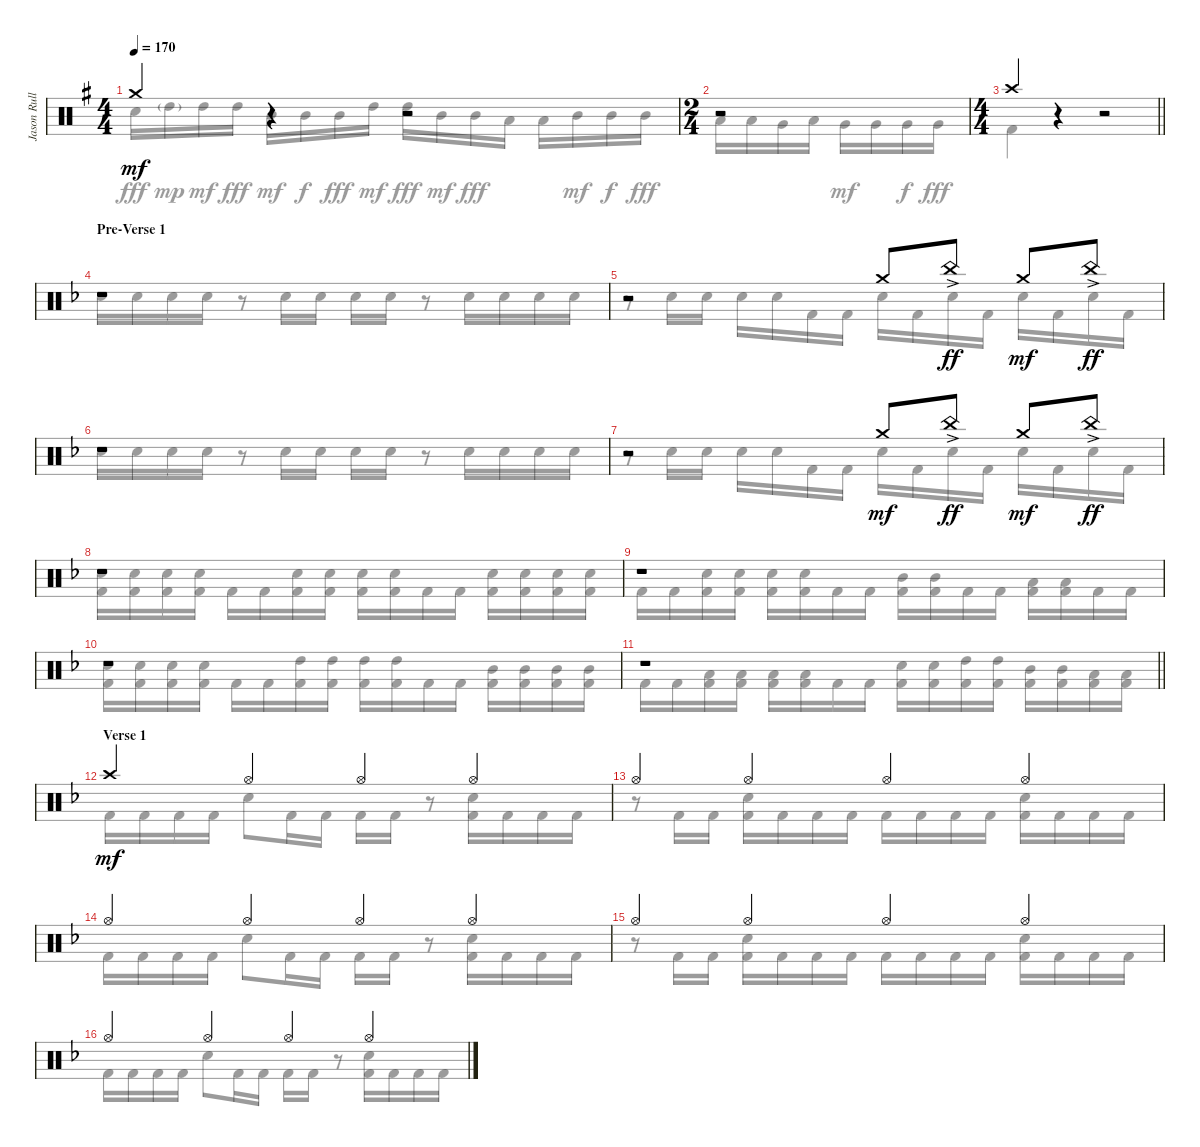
\track ("Jason Rullo Drums" "Jason Rull") {instrument percussion}
\staff {score}
\articulation defaults
\voice
\ts (4 4)
\tempo 170
\clef neutral
\ks eminor "Crash medium (hit)".4{dy mf}
r.4 r.2 |
\ts (2 4)
r.2 |
\ts (4 4)
\barLineRight lightlight "Crash high (hit)".4
r.4 r.2 |
\section ("" "Pre-Verse 1")
\ks dminor
r.1 |
r.2 "Crash medium (hit)".8 "China (hit)"{ac}.8{dy ff} "Crash medium (hit)".8{dy mf} "China (hit)"{ac}.8{dy ff} |
r.1 |
r.2 "Crash medium (hit)".8{dy mf} "China (hit)"{ac}.8{dy ff} "Crash medium (hit)".8{dy mf} "China (hit)"{ac}.8{dy ff} |
r.1 |
r.1 |
r.1 |
\barLineRight lightlight
r.1 |
\section ("" "Verse 1")
"Crash high (hit)".4{dy mf} "Hi-Hat (open)".4 "Hi-Hat (open)".4 "Hi-Hat (open)".4 |
"Hi-Hat (open)".4 "Hi-Hat (open)".4 "Hi-Hat (open)".4 "Hi-Hat (open)".4 |
"Hi-Hat (open)".4 "Hi-Hat (open)".4 "Hi-Hat (open)".4 "Hi-Hat (open)".4 |
"Hi-Hat (open)".4 "Hi-Hat (open)".4 "Hi-Hat (open)".4 "Hi-Hat (open)".4 |
"Hi-Hat (open)".4 "Hi-Hat (open)".4 "Hi-Hat (open)".4 "Hi-Hat (open)".4
\voice
\clef neutral
\ottava regular
\simile none
\ks eminor "Electric Snare (hit)".16{dy fff} "High Tom (hit)"{g}.16{dy mp} "High Tom (hit)".16{dy mf} "High Tom (hit)".16{dy fff} "Mid Tom (hit)".16{dy mf} "Mid Tom (hit)".16{dy f} "Mid Tom (hit)".16{dy fff} "High Tom (hit)".16{dy mf} "High Tom (hit)".16{dy fff} "Mid Tom (hit)".16{dy mf} "Mid Tom (hit)".16{dy fff} "Low Tom (hit)".16 "Low Tom (hit)".16 "Mid Tom (hit)".16{dy mf} "Mid Tom (hit)".16{dy f} "Mid Tom (hit)".16{dy fff}
|
"Low Tom (hit)".16 "Low Tom (hit)".16 "Very Low Tom (hit)".16 "Low Tom (hit)".16 "Very Low Tom (hit)".16{dy mf} "Very Low Tom (hit)".16 "Very Low Tom (hit)".16{dy f} "Very Low Tom (hit)".16{dy fff} |
\barLineRight lightlight "Kick (hit) 2".4
r.4 r.2 |
\ks dminor "Electric Snare (hit)".16 "Electric Snare (hit)".16 "Electric Snare (hit)".16 "Electric Snare (hit)".16
r.8 "Electric Snare (hit)".16 "Electric Snare (hit)".16 "Electric Snare (hit)".16 "Electric Snare (hit)".16 r.8 "Electric Snare (hit)".16 "Electric Snare (hit)".16 "Electric Snare (hit)".16 "Electric Snare (hit)".16 |
r.8 "Electric Snare (hit)".16 "Electric Snare (hit)".16 "Electric Snare (hit)".16 "Electric Snare (hit)".16 "Kick (hit) 2".16 "Kick (hit) 2".16 "Electric Snare (hit)".16 "Kick (hit) 2".16 "Electric Snare (hit)".16 "Kick (hit) 2".16 "Electric Snare (hit)".16 "Kick (hit) 2".16 "Electric Snare (hit)".16 "Kick (hit) 2".16 |
"Electric Snare (hit)".16 "Electric Snare (hit)".16 "Electric Snare (hit)".16 "Electric Snare (hit)".16 r.8 "Electric Snare (hit)".16 "Electric Snare (hit)".16 "Electric Snare (hit)".16 "Electric Snare (hit)".16 r.8 "Electric Snare (hit)".16 "Electric Snare (hit)".16 "Electric Snare (hit)".16 "Electric Snare (hit)".16 |
r.8 "Electric Snare (hit)".16 "Electric Snare (hit)".16 "Electric Snare (hit)".16 "Electric Snare (hit)".16 "Kick (hit) 2".16 "Kick (hit) 2".16 "Electric Snare (hit)".16 "Kick (hit) 2".16 "Electric Snare (hit)".16 "Kick (hit) 2".16 "Electric Snare (hit)".16 "Kick (hit) 2".16 "Electric Snare (hit)".16 "Kick (hit) 2".16 |
("Electric Snare (hit)" "Kick (hit) 2").16 ("Electric Snare (hit)" "Kick (hit) 2").16 ("Electric Snare (hit)" "Kick (hit) 2").16 ("Electric Snare (hit)" "Kick (hit) 2").16 "Kick (hit) 2".16 "Kick (hit) 2".16 ("Electric Snare (hit)" "Kick (hit) 2").16 ("Electric Snare (hit)" "Kick (hit) 2").16 ("Electric Snare (hit)" "Kick (hit) 2").16 ("Electric Snare (hit)" "Kick (hit) 2").16 "Kick (hit) 2".16 "Kick (hit) 2".16 ("Electric Snare (hit)" "Kick (hit) 2").16 ("Electric Snare (hit)" "Kick (hit) 2").16 ("Electric Snare (hit)" "Kick (hit) 2").16 ("Electric Snare (hit)" "Kick (hit) 2").16 |
"Kick (hit) 2".16 "Kick (hit) 2".16 ("Electric Snare (hit)" "Kick (hit) 2").16 ("Electric Snare (hit)" "Kick (hit) 2").16 ("Electric Snare (hit)" "Kick (hit) 2").16 ("Electric Snare (hit)" "Kick (hit) 2").16 "Kick (hit) 2".16 "Kick (hit) 2".16 ("Mid Tom (hit)" "Kick (hit) 2").16 ("Mid Tom (hit)" "Kick (hit) 2").16 "Kick (hit) 2".16 "Kick (hit) 2".16 ("Low Tom (hit)" "Kick (hit) 2").16 ("Low Tom (hit)" "Kick (hit) 2").16 "Kick (hit) 2".16 "Kick (hit) 2".16 |
("Electric Snare (hit)" "Kick (hit) 2").16 ("Electric Snare (hit)" "Kick (hit) 2").16 ("Electric Snare (hit)" "Kick (hit) 2").16 ("Electric Snare (hit)" "Kick (hit) 2").16 "Kick (hit) 2".16 "Kick (hit) 2".16 ("High Tom (hit)" "Kick (hit) 2").16 ("High Tom (hit)" "Kick (hit) 2").16 ("High Tom (hit)" "Kick (hit) 2").16 ("High Tom (hit)" "Kick (hit) 2").16 "Kick (hit) 2".16 "Kick (hit) 2".16 ("Mid Tom (hit)" "Kick (hit) 2").16 ("Mid Tom (hit)" "Kick (hit) 2").16 ("Mid Tom (hit)" "Kick (hit) 2").16 ("Mid Tom (hit)" "Kick (hit) 2").16 |
\barLineRight lightlight "Kick (hit) 2".16 "Kick (hit) 2".16
("Low Tom (hit)" "Kick (hit) 2").16 ("Low Tom (hit)" "Kick (hit) 2").16 ("Low Tom (hit)" "Kick (hit) 2").16 ("Low Tom (hit)" "Kick (hit) 2").16 "Kick (hit) 2".16 "Kick (hit) 2".16 ("Electric Snare (hit)" "Kick (hit) 2").16 ("Electric Snare (hit)" "Kick (hit) 2").16 ("High Tom (hit)" "Kick (hit) 2").16 ("High Tom (hit)" "Kick (hit) 2").16 ("Mid Tom (hit)" "Kick (hit) 2").16 ("Mid Tom (hit)" "Kick (hit) 2").16 ("Low Tom (hit)" "Kick (hit) 2").16 ("Low Tom (hit)" "Kick (hit) 2").16 |
"Kick (hit) 2".16 "Kick (hit) 2".16 "Kick (hit) 2".16 "Kick (hit) 2".16 "Electric Snare (hit)".8 "Kick (hit) 2".16 "Kick (hit) 2".16 "Kick (hit) 2".16 "Kick (hit) 2".16 r.8 ("Electric Snare (hit)" "Kick (hit) 2").16 "Kick (hit) 2".16 "Kick (hit) 2".16 "Kick (hit) 2".16 |
r.8 "Kick (hit) 2".16 "Kick (hit) 2".16 ("Electric Snare (hit)" "Kick (hit) 2").16 "Kick (hit) 2".16 "Kick (hit) 2".16 "Kick (hit) 2".16 "Kick (hit) 2".16 "Kick (hit) 2".16 "Kick (hit) 2".16 "Kick (hit) 2".16 ("Electric Snare (hit)" "Kick (hit) 2").16 "Kick (hit) 2".16 "Kick (hit) 2".16 "Kick (hit) 2".16 |
"Kick (hit) 2".16 "Kick (hit) 2".16 "Kick (hit) 2".16 "Kick (hit) 2".16 "Electric Snare (hit)".8 "Kick (hit) 2".16 "Kick (hit) 2".16 "Kick (hit) 2".16 "Kick (hit) 2".16 r.8 ("Electric Snare (hit)" "Kick (hit) 2").16 "Kick (hit) 2".16 "Kick (hit) 2".16 "Kick (hit) 2".16 |
r.8 "Kick (hit) 2".16 "Kick (hit) 2".16 ("Electric Snare (hit)" "Kick (hit) 2").16 "Kick (hit) 2".16 "Kick (hit) 2".16 "Kick (hit) 2".16 "Kick (hit) 2".16 "Kick (hit) 2".16 "Kick (hit) 2".16 "Kick (hit) 2".16 ("Electric Snare (hit)" "Kick (hit) 2").16 "Kick (hit) 2".16 "Kick (hit) 2".16 "Kick (hit) 2".16 |
"Kick (hit) 2".16 "Kick (hit) 2".16 "Kick (hit) 2".16 "Kick (hit) 2".16 "Electric Snare (hit)".8 "Kick (hit) 2".16 "Kick (hit) 2".16 "Kick (hit) 2".16 "Kick (hit) 2".16 r.8 ("Electric Snare (hit)" "Kick (hit) 2").16 "Kick (hit) 2".16 "Kick (hit) 2".16 "Kick (hit) 2".16
